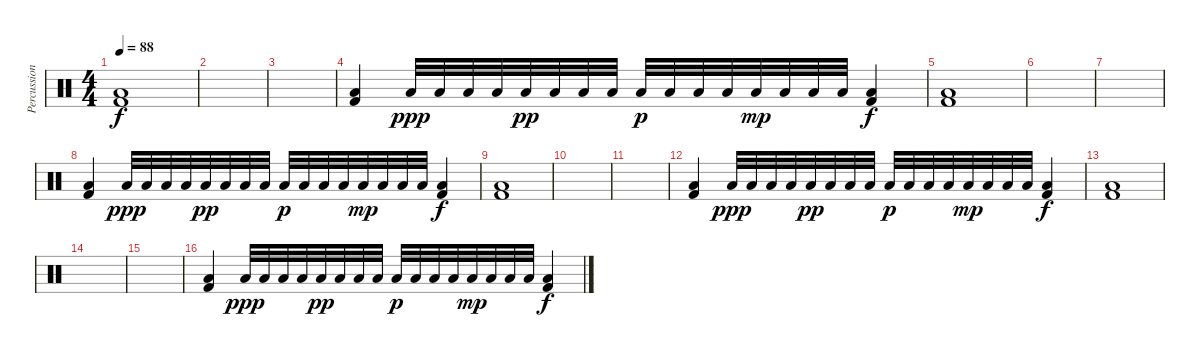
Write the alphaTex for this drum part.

\track ("Percussion" "Percussion") {instrument percussion}
\staff {score}
\articulation defaults
\ts (4 4)
\tempo 88
\clef neutral
\ks c
("Low Floor Tom (hit)" "Kick (hit) 2").1{dy f} |
|
|
("Low Floor Tom (hit)" "Kick (hit) 2").4 "Low Floor Tom (hit)".32{dy ppp} "Low Floor Tom (hit)".32 "Low Floor Tom (hit)".32 "Low Floor Tom (hit)".32 "Low Floor Tom (hit)".32{dy pp} "Low Floor Tom (hit)".32 "Low Floor Tom (hit)".32 "Low Floor Tom (hit)".32 "Low Floor Tom (hit)".32{dy p} "Low Floor Tom (hit)".32 "Low Floor Tom (hit)".32 "Low Floor Tom (hit)".32 "Low Floor Tom (hit)".32{dy mp} "Low Floor Tom (hit)".32 "Low Floor Tom (hit)".32 "Low Floor Tom (hit)".32 ("Low Floor Tom (hit)" "Kick (hit) 2").4{dy f} |
("Low Floor Tom (hit)" "Kick (hit) 2").1 |
|
|
("Low Floor Tom (hit)" "Kick (hit) 2").4 "Low Floor Tom (hit)".32{dy ppp} "Low Floor Tom (hit)".32 "Low Floor Tom (hit)".32 "Low Floor Tom (hit)".32 "Low Floor Tom (hit)".32{dy pp} "Low Floor Tom (hit)".32 "Low Floor Tom (hit)".32 "Low Floor Tom (hit)".32 "Low Floor Tom (hit)".32{dy p} "Low Floor Tom (hit)".32 "Low Floor Tom (hit)".32 "Low Floor Tom (hit)".32 "Low Floor Tom (hit)".32{dy mp} "Low Floor Tom (hit)".32 "Low Floor Tom (hit)".32 "Low Floor Tom (hit)".32 ("Low Floor Tom (hit)" "Kick (hit) 2").4{dy f} |
("Low Floor Tom (hit)" "Kick (hit) 2").1 |
|
|
("Low Floor Tom (hit)" "Kick (hit) 2").4 "Low Floor Tom (hit)".32{dy ppp} "Low Floor Tom (hit)".32 "Low Floor Tom (hit)".32 "Low Floor Tom (hit)".32 "Low Floor Tom (hit)".32{dy pp} "Low Floor Tom (hit)".32 "Low Floor Tom (hit)".32 "Low Floor Tom (hit)".32 "Low Floor Tom (hit)".32{dy p} "Low Floor Tom (hit)".32 "Low Floor Tom (hit)".32 "Low Floor Tom (hit)".32 "Low Floor Tom (hit)".32{dy mp} "Low Floor Tom (hit)".32 "Low Floor Tom (hit)".32 "Low Floor Tom (hit)".32 ("Low Floor Tom (hit)" "Kick (hit) 2").4{dy f} |
("Low Floor Tom (hit)" "Kick (hit) 2").1 |
|
|
("Low Floor Tom (hit)" "Kick (hit) 2").4 "Low Floor Tom (hit)".32{dy ppp} "Low Floor Tom (hit)".32 "Low Floor Tom (hit)".32 "Low Floor Tom (hit)".32 "Low Floor Tom (hit)".32{dy pp} "Low Floor Tom (hit)".32 "Low Floor Tom (hit)".32 "Low Floor Tom (hit)".32 "Low Floor Tom (hit)".32{dy p} "Low Floor Tom (hit)".32 "Low Floor Tom (hit)".32 "Low Floor Tom (hit)".32 "Low Floor Tom (hit)".32{dy mp} "Low Floor Tom (hit)".32 "Low Floor Tom (hit)".32 "Low Floor Tom (hit)".32 ("Low Floor Tom (hit)" "Kick (hit) 2").4{dy f}
